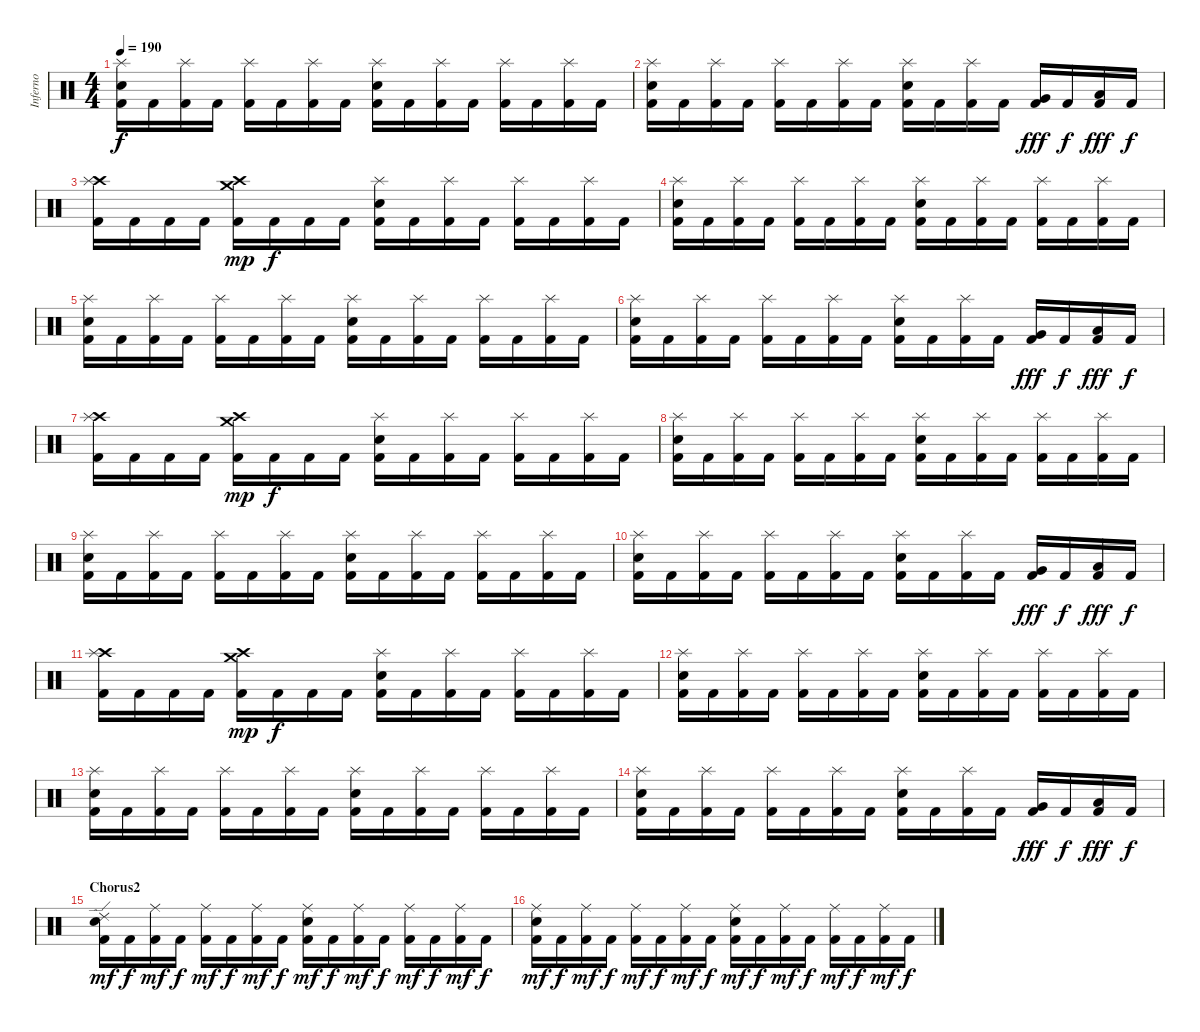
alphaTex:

\track ("Inferno" "Inferno") {instrument percussion}
\staff {score}
\articulation defaults
\ts (4 4)
\tempo 190
\clef neutral
\ks c
("Splash (hit)" "Snare (hit) 2" "Kick (hit) 2").16{dy f} "Kick (hit) 2".16 ("Splash (hit)" "Kick (hit) 2").16 "Kick (hit) 2".16 ("Splash (hit)" "Kick (hit) 2").16 "Kick (hit) 2".16 ("Splash (hit)" "Kick (hit) 2").16 "Kick (hit) 2".16 ("Splash (hit)" "Snare (hit) 2" "Kick (hit) 2").16 "Kick (hit) 2".16 ("Splash (hit)" "Kick (hit) 2").16 "Kick (hit) 2".16 ("Splash (hit)" "Kick (hit) 2").16 "Kick (hit) 2".16 ("Splash (hit)" "Kick (hit) 2").16 "Kick (hit) 2".16 |
("Splash (hit)" "Snare (hit) 2" "Kick (hit) 2").16 "Kick (hit) 2".16 ("Splash (hit)" "Kick (hit) 2").16 "Kick (hit) 2".16 ("Splash (hit)" "Kick (hit) 2").16 "Kick (hit) 2".16 ("Splash (hit)" "Kick (hit) 2").16 "Kick (hit) 2".16 ("Splash (hit)" "Snare (hit) 2" "Kick (hit) 2").16 "Kick (hit) 2".16 ("Splash (hit)" "Kick (hit) 2").16 "Kick (hit) 2".16 ("Very Low Tom (hit)" "Kick (hit) 2").16{dy fff} "Kick (hit) 2".16{dy f} ("Low Floor Tom (hit)" "Kick (hit) 2").16{dy fff} "Kick (hit) 2".16{dy f} |
("Crash high (hit)" "Splash (hit)" "Kick (hit) 2").16 "Kick (hit) 2".16 "Kick (hit) 2".16 "Kick (hit) 2".16 ("Crash high (hit)" "Crash medium (hit)" "Kick (hit) 2").16{dy mp} "Kick (hit) 2".16{dy f} "Kick (hit) 2".16 "Kick (hit) 2".16 ("Splash (hit)" "Snare (hit) 2" "Kick (hit) 2").16 "Kick (hit) 2".16 ("Splash (hit)" "Kick (hit) 2").16 "Kick (hit) 2".16 ("Splash (hit)" "Kick (hit) 2").16 "Kick (hit) 2".16 ("Splash (hit)" "Kick (hit) 2").16 "Kick (hit) 2".16 |
("Splash (hit)" "Snare (hit) 2" "Kick (hit) 2").16 "Kick (hit) 2".16 ("Splash (hit)" "Kick (hit) 2").16 "Kick (hit) 2".16 ("Splash (hit)" "Kick (hit) 2").16 "Kick (hit) 2".16 ("Splash (hit)" "Kick (hit) 2").16 "Kick (hit) 2".16 ("Splash (hit)" "Snare (hit) 2" "Kick (hit) 2").16 "Kick (hit) 2".16 ("Splash (hit)" "Kick (hit) 2").16 "Kick (hit) 2".16 ("Splash (hit)" "Kick (hit) 2").16 "Kick (hit) 2".16 ("Splash (hit)" "Kick (hit) 2").16 "Kick (hit) 2".16 |
("Splash (hit)" "Snare (hit) 2" "Kick (hit) 2").16 "Kick (hit) 2".16 ("Splash (hit)" "Kick (hit) 2").16 "Kick (hit) 2".16 ("Splash (hit)" "Kick (hit) 2").16 "Kick (hit) 2".16 ("Splash (hit)" "Kick (hit) 2").16 "Kick (hit) 2".16 ("Splash (hit)" "Snare (hit) 2" "Kick (hit) 2").16 "Kick (hit) 2".16 ("Splash (hit)" "Kick (hit) 2").16 "Kick (hit) 2".16 ("Splash (hit)" "Kick (hit) 2").16 "Kick (hit) 2".16 ("Splash (hit)" "Kick (hit) 2").16 "Kick (hit) 2".16 |
("Splash (hit)" "Snare (hit) 2" "Kick (hit) 2").16 "Kick (hit) 2".16 ("Splash (hit)" "Kick (hit) 2").16 "Kick (hit) 2".16 ("Splash (hit)" "Kick (hit) 2").16 "Kick (hit) 2".16 ("Splash (hit)" "Kick (hit) 2").16 "Kick (hit) 2".16 ("Splash (hit)" "Snare (hit) 2" "Kick (hit) 2").16 "Kick (hit) 2".16 ("Splash (hit)" "Kick (hit) 2").16 "Kick (hit) 2".16 ("Very Low Tom (hit)" "Kick (hit) 2").16{dy fff} "Kick (hit) 2".16{dy f} ("Low Floor Tom (hit)" "Kick (hit) 2").16{dy fff} "Kick (hit) 2".16{dy f} |
("Crash high (hit)" "Splash (hit)" "Kick (hit) 2").16 "Kick (hit) 2".16 "Kick (hit) 2".16 "Kick (hit) 2".16 ("Crash high (hit)" "Crash medium (hit)" "Kick (hit) 2").16{dy mp} "Kick (hit) 2".16{dy f} "Kick (hit) 2".16 "Kick (hit) 2".16 ("Splash (hit)" "Snare (hit) 2" "Kick (hit) 2").16 "Kick (hit) 2".16 ("Splash (hit)" "Kick (hit) 2").16 "Kick (hit) 2".16 ("Splash (hit)" "Kick (hit) 2").16 "Kick (hit) 2".16 ("Splash (hit)" "Kick (hit) 2").16 "Kick (hit) 2".16 |
("Splash (hit)" "Snare (hit) 2" "Kick (hit) 2").16 "Kick (hit) 2".16 ("Splash (hit)" "Kick (hit) 2").16 "Kick (hit) 2".16 ("Splash (hit)" "Kick (hit) 2").16 "Kick (hit) 2".16 ("Splash (hit)" "Kick (hit) 2").16 "Kick (hit) 2".16 ("Splash (hit)" "Snare (hit) 2" "Kick (hit) 2").16 "Kick (hit) 2".16 ("Splash (hit)" "Kick (hit) 2").16 "Kick (hit) 2".16 ("Splash (hit)" "Kick (hit) 2").16 "Kick (hit) 2".16 ("Splash (hit)" "Kick (hit) 2").16 "Kick (hit) 2".16 |
("Splash (hit)" "Snare (hit) 2" "Kick (hit) 2").16 "Kick (hit) 2".16 ("Splash (hit)" "Kick (hit) 2").16 "Kick (hit) 2".16 ("Splash (hit)" "Kick (hit) 2").16 "Kick (hit) 2".16 ("Splash (hit)" "Kick (hit) 2").16 "Kick (hit) 2".16 ("Splash (hit)" "Snare (hit) 2" "Kick (hit) 2").16 "Kick (hit) 2".16 ("Splash (hit)" "Kick (hit) 2").16 "Kick (hit) 2".16 ("Splash (hit)" "Kick (hit) 2").16 "Kick (hit) 2".16 ("Splash (hit)" "Kick (hit) 2").16 "Kick (hit) 2".16 |
("Splash (hit)" "Snare (hit) 2" "Kick (hit) 2").16 "Kick (hit) 2".16 ("Splash (hit)" "Kick (hit) 2").16 "Kick (hit) 2".16 ("Splash (hit)" "Kick (hit) 2").16 "Kick (hit) 2".16 ("Splash (hit)" "Kick (hit) 2").16 "Kick (hit) 2".16 ("Splash (hit)" "Snare (hit) 2" "Kick (hit) 2").16 "Kick (hit) 2".16 ("Splash (hit)" "Kick (hit) 2").16 "Kick (hit) 2".16 ("Very Low Tom (hit)" "Kick (hit) 2").16{dy fff} "Kick (hit) 2".16{dy f} ("Low Floor Tom (hit)" "Kick (hit) 2").16{dy fff} "Kick (hit) 2".16{dy f} |
("Crash high (hit)" "Splash (hit)" "Kick (hit) 2").16 "Kick (hit) 2".16 "Kick (hit) 2".16 "Kick (hit) 2".16 ("Crash high (hit)" "Crash medium (hit)" "Kick (hit) 2").16{dy mp} "Kick (hit) 2".16{dy f} "Kick (hit) 2".16 "Kick (hit) 2".16 ("Splash (hit)" "Snare (hit) 2" "Kick (hit) 2").16 "Kick (hit) 2".16 ("Splash (hit)" "Kick (hit) 2").16 "Kick (hit) 2".16 ("Splash (hit)" "Kick (hit) 2").16 "Kick (hit) 2".16 ("Splash (hit)" "Kick (hit) 2").16 "Kick (hit) 2".16 |
("Splash (hit)" "Snare (hit) 2" "Kick (hit) 2").16 "Kick (hit) 2".16 ("Splash (hit)" "Kick (hit) 2").16 "Kick (hit) 2".16 ("Splash (hit)" "Kick (hit) 2").16 "Kick (hit) 2".16 ("Splash (hit)" "Kick (hit) 2").16 "Kick (hit) 2".16 ("Splash (hit)" "Snare (hit) 2" "Kick (hit) 2").16 "Kick (hit) 2".16 ("Splash (hit)" "Kick (hit) 2").16 "Kick (hit) 2".16 ("Splash (hit)" "Kick (hit) 2").16 "Kick (hit) 2".16 ("Splash (hit)" "Kick (hit) 2").16 "Kick (hit) 2".16 |
("Splash (hit)" "Snare (hit) 2" "Kick (hit) 2").16 "Kick (hit) 2".16 ("Splash (hit)" "Kick (hit) 2").16 "Kick (hit) 2".16 ("Splash (hit)" "Kick (hit) 2").16 "Kick (hit) 2".16 ("Splash (hit)" "Kick (hit) 2").16 "Kick (hit) 2".16 ("Splash (hit)" "Snare (hit) 2" "Kick (hit) 2").16 "Kick (hit) 2".16 ("Splash (hit)" "Kick (hit) 2").16 "Kick (hit) 2".16 ("Splash (hit)" "Kick (hit) 2").16 "Kick (hit) 2".16 ("Splash (hit)" "Kick (hit) 2").16 "Kick (hit) 2".16 |
("Splash (hit)" "Snare (hit) 2" "Kick (hit) 2").16 "Kick (hit) 2".16 ("Splash (hit)" "Kick (hit) 2").16 "Kick (hit) 2".16 ("Splash (hit)" "Kick (hit) 2").16 "Kick (hit) 2".16 ("Splash (hit)" "Kick (hit) 2").16 "Kick (hit) 2".16 ("Splash (hit)" "Snare (hit) 2" "Kick (hit) 2").16 "Kick (hit) 2".16 ("Splash (hit)" "Kick (hit) 2").16 "Kick (hit) 2".16 ("Very Low Tom (hit)" "Kick (hit) 2").16{dy fff} "Kick (hit) 2".16{dy f} ("Low Floor Tom (hit)" "Kick (hit) 2").16{dy fff} "Kick (hit) 2".16{dy f} |
\section ("" "Chorus2")
("Ride (edge) 2" "Snare (hit) 2" "Kick (hit) 2").16{dy mf} "Kick (hit) 2".16{dy f} ("Ride (middle)" "Kick (hit) 2").16{dy mf} "Kick (hit) 2".16{dy f} ("Ride (middle)" "Kick (hit) 2").16{dy mf} "Kick (hit) 2".16{dy f} ("Ride (middle)" "Kick (hit) 2").16{dy mf} "Kick (hit) 2".16{dy f} ("Ride (middle)" "Snare (hit) 2" "Kick (hit) 2").16{dy mf} "Kick (hit) 2".16{dy f} ("Ride (middle)" "Kick (hit) 2").16{dy mf} "Kick (hit) 2".16{dy f} ("Ride (middle)" "Kick (hit) 2").16{dy mf} "Kick (hit) 2".16{dy f} ("Ride (middle)" "Kick (hit) 2").16{dy mf} "Kick (hit) 2".16{dy f} |
("Ride (middle)" "Snare (hit) 2" "Kick (hit) 2").16{dy mf} "Kick (hit) 2".16{dy f} ("Ride (middle)" "Kick (hit) 2").16{dy mf} "Kick (hit) 2".16{dy f} ("Ride (middle)" "Kick (hit) 2").16{dy mf} "Kick (hit) 2".16{dy f} ("Ride (middle)" "Kick (hit) 2").16{dy mf} "Kick (hit) 2".16{dy f} ("Ride (middle)" "Snare (hit) 2" "Kick (hit) 2").16{dy mf} "Kick (hit) 2".16{dy f} ("Ride (middle)" "Kick (hit) 2").16{dy mf} "Kick (hit) 2".16{dy f} ("Ride (middle)" "Kick (hit) 2").16{dy mf} "Kick (hit) 2".16{dy f} ("Ride (middle)" "Kick (hit) 2").16{dy mf} "Kick (hit) 2".16{dy f}
